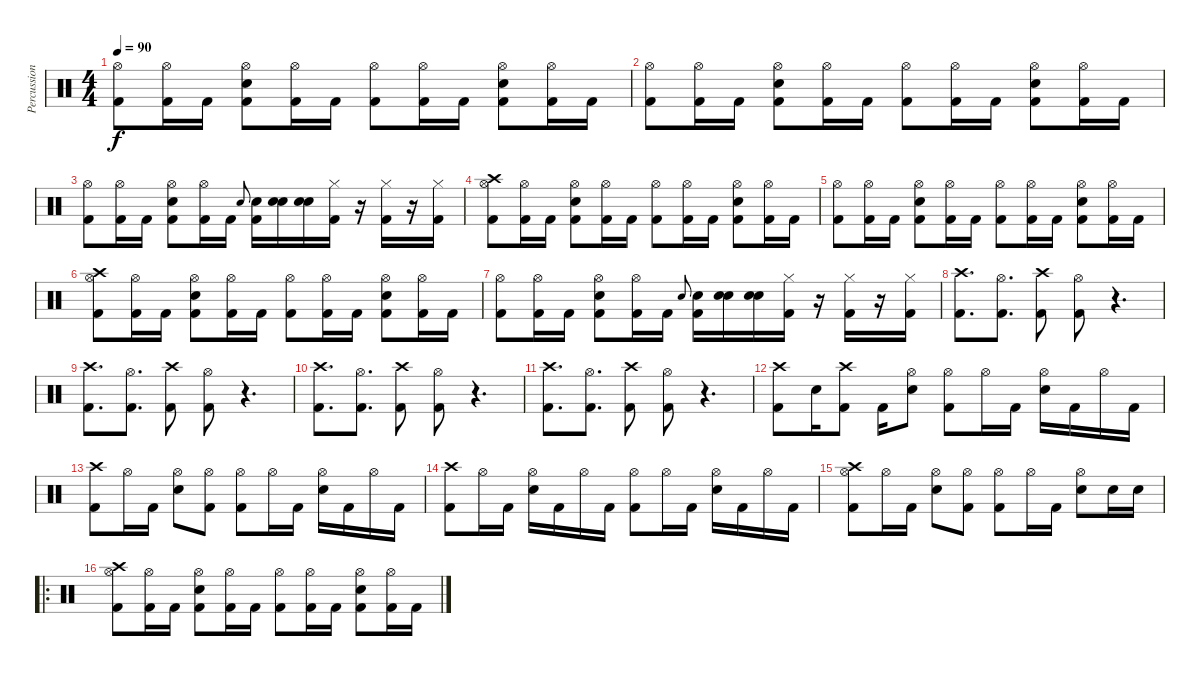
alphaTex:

\track ("Percussion " "Percussion") {instrument percussion}
\staff {score}
\articulation defaults
\ts (4 4)
\tempo 90
\clef neutral
\ks c
("Hi-Hat (open)" "Kick (hit) 2").8{dy f} ("Hi-Hat (open)" "Kick (hit) 2").16 "Kick (hit) 2".16 ("Hi-Hat (open)" "Snare (hit) 2" "Kick (hit) 2").8 ("Hi-Hat (open)" "Kick (hit) 2").16 "Kick (hit) 2".16 ("Hi-Hat (open)" "Kick (hit) 2").8 ("Hi-Hat (open)" "Kick (hit) 2").16 "Kick (hit) 2".16 ("Hi-Hat (open)" "Snare (hit) 2" "Kick (hit) 2").8 ("Hi-Hat (open)" "Kick (hit) 2").16 "Kick (hit) 2".16 |
("Hi-Hat (open)" "Kick (hit) 2").8 ("Hi-Hat (open)" "Kick (hit) 2").16 "Kick (hit) 2".16 ("Hi-Hat (open)" "Snare (hit) 2" "Kick (hit) 2").8 ("Hi-Hat (open)" "Kick (hit) 2").16 "Kick (hit) 2".16 ("Hi-Hat (open)" "Kick (hit) 2").8 ("Hi-Hat (open)" "Kick (hit) 2").16 "Kick (hit) 2".16 ("Hi-Hat (open)" "Snare (hit) 2" "Kick (hit) 2").8 ("Hi-Hat (open)" "Kick (hit) 2").16 "Kick (hit) 2".16 |
("Hi-Hat (open)" "Kick (hit) 2").8 ("Hi-Hat (open)" "Kick (hit) 2").16 "Kick (hit) 2".16 ("Hi-Hat (open)" "Snare (hit) 2" "Kick (hit) 2").8 ("Hi-Hat (open)" "Kick (hit) 2").16 "Kick (hit) 2".16 "Snare (hit) 2".8{gr onbeat} ("Snare (hit) 2" "Kick (hit) 2").16 ("Snare (hit) 2" "Snare (hit) 2").16 ("Snare (hit) 2" "Snare (hit) 2").16 ("Hi-Hat (closed)" "Kick (hit) 2").16 r.16 ("Hi-Hat (closed)" "Kick (hit) 2").16 r.16 ("Hi-Hat (closed)" "Kick (hit) 2").16 |
("Crash high (hit)" "Hi-Hat (open)" "Kick (hit) 2").8 ("Hi-Hat (open)" "Kick (hit) 2").16 "Kick (hit) 2".16 ("Hi-Hat (open)" "Snare (hit) 2" "Kick (hit) 2").8 ("Hi-Hat (open)" "Kick (hit) 2").16 "Kick (hit) 2".16 ("Hi-Hat (open)" "Kick (hit) 2").8 ("Hi-Hat (open)" "Kick (hit) 2").16 "Kick (hit) 2".16 ("Hi-Hat (open)" "Snare (hit) 2" "Kick (hit) 2").8 ("Hi-Hat (open)" "Kick (hit) 2").16 "Kick (hit) 2".16 |
("Hi-Hat (open)" "Kick (hit) 2").8 ("Hi-Hat (open)" "Kick (hit) 2").16 "Kick (hit) 2".16 ("Hi-Hat (open)" "Snare (hit) 2" "Kick (hit) 2").8 ("Hi-Hat (open)" "Kick (hit) 2").16 "Kick (hit) 2".16 ("Hi-Hat (open)" "Kick (hit) 2").8 ("Hi-Hat (open)" "Kick (hit) 2").16 "Kick (hit) 2".16 ("Hi-Hat (open)" "Snare (hit) 2" "Kick (hit) 2").8 ("Hi-Hat (open)" "Kick (hit) 2").16 "Kick (hit) 2".16 |
("Crash high (hit)" "Hi-Hat (open)" "Kick (hit) 2").8 ("Hi-Hat (open)" "Kick (hit) 2").16 "Kick (hit) 2".16 ("Hi-Hat (open)" "Snare (hit) 2" "Kick (hit) 2").8 ("Hi-Hat (open)" "Kick (hit) 2").16 "Kick (hit) 2".16 ("Hi-Hat (open)" "Kick (hit) 2").8 ("Hi-Hat (open)" "Kick (hit) 2").16 "Kick (hit) 2".16 ("Hi-Hat (open)" "Snare (hit) 2" "Kick (hit) 2").8 ("Hi-Hat (open)" "Kick (hit) 2").16 "Kick (hit) 2".16 |
("Hi-Hat (open)" "Kick (hit) 2").8 ("Hi-Hat (open)" "Kick (hit) 2").16 "Kick (hit) 2".16 ("Hi-Hat (open)" "Snare (hit) 2" "Kick (hit) 2").8 ("Hi-Hat (open)" "Kick (hit) 2").16 "Kick (hit) 2".16 "Snare (hit) 2".8{gr onbeat} ("Snare (hit) 2" "Kick (hit) 2").16 ("Snare (hit) 2" "Snare (hit) 2").16 ("Snare (hit) 2" "Snare (hit) 2").16 ("Hi-Hat (closed)" "Kick (hit) 2").16 r.16 ("Hi-Hat (closed)" "Kick (hit) 2").16 r.16 ("Hi-Hat (closed)" "Kick (hit) 2").16 |
("Crash high (hit)" "Kick (hit) 2").8{d} ("Hi-Hat (open)" "Kick (hit) 2").8{d} ("Crash high (hit)" "Kick (hit) 2").8 ("Hi-Hat (open)" "Kick (hit) 2").8 r.4{d} |
("Crash high (hit)" "Kick (hit) 2").8{d} ("Hi-Hat (open)" "Kick (hit) 2").8{d} ("Crash high (hit)" "Kick (hit) 2").8 ("Hi-Hat (open)" "Kick (hit) 2").8 r.4{d} |
("Crash high (hit)" "Kick (hit) 2").8{d} ("Hi-Hat (open)" "Kick (hit) 2").8{d} ("Crash high (hit)" "Kick (hit) 2").8 ("Hi-Hat (open)" "Kick (hit) 2").8 r.4{d} |
("Crash high (hit)" "Kick (hit) 2").8{d} ("Hi-Hat (open)" "Kick (hit) 2").8{d} ("Crash high (hit)" "Kick (hit) 2").8 ("Hi-Hat (open)" "Kick (hit) 2").8 r.4{d} |
("Crash high (hit)" "Kick (hit) 2").8 "Snare (hit) 2".16 ("Crash high (hit)" "Kick (hit) 2").8 "Kick (hit) 2".16 ("Hi-Hat (open)" "Snare (hit) 2").8 ("Hi-Hat (open)" "Kick (hit) 2").8 "Hi-Hat (open)".16 "Kick (hit) 2".16 ("Hi-Hat (open)" "Snare (hit) 2").16 "Kick (hit) 2".16 "Hi-Hat (open)".16 "Kick (hit) 2".16 |
("Crash high (hit)" "Kick (hit) 2").8 "Hi-Hat (open)".16 "Kick (hit) 2".16 ("Hi-Hat (open)" "Snare (hit) 2").8 ("Hi-Hat (open)" "Kick (hit) 2").8 ("Hi-Hat (open)" "Kick (hit) 2").8 "Hi-Hat (open)".16 "Kick (hit) 2".16 ("Hi-Hat (open)" "Snare (hit) 2").16 "Kick (hit) 2".16 "Hi-Hat (open)".16 "Kick (hit) 2".16 |
("Crash high (hit)" "Kick (hit) 2").8 "Hi-Hat (open)".16 "Kick (hit) 2".16 ("Hi-Hat (open)" "Snare (hit) 2").16 "Kick (hit) 2".16 "Hi-Hat (open)".16 "Kick (hit) 2".16 ("Hi-Hat (open)" "Kick (hit) 2").8 "Hi-Hat (open)".16 "Kick (hit) 2".16 ("Hi-Hat (open)" "Snare (hit) 2").16 "Kick (hit) 2".16 "Hi-Hat (open)".16 "Kick (hit) 2".16 |
("Crash high (hit)" "Hi-Hat (open)" "Kick (hit) 2").8 "Hi-Hat (open)".16 "Kick (hit) 2".16 ("Hi-Hat (open)" "Snare (hit) 2").8 ("Hi-Hat (open)" "Kick (hit) 2").8 ("Hi-Hat (open)" "Kick (hit) 2").8 "Hi-Hat (open)".16 "Kick (hit) 2".16 ("Hi-Hat (open)" "Snare (hit) 2").8 "Snare (hit) 2".16 "Snare (hit) 2".16 |
\ro
("Crash high (hit)" "Hi-Hat (open)" "Kick (hit) 2").8 ("Hi-Hat (open)" "Kick (hit) 2").16 "Kick (hit) 2".16 ("Hi-Hat (open)" "Snare (hit) 2" "Kick (hit) 2").8 ("Hi-Hat (open)" "Kick (hit) 2").16 "Kick (hit) 2".16 ("Hi-Hat (open)" "Kick (hit) 2").8 ("Hi-Hat (open)" "Kick (hit) 2").16 "Kick (hit) 2".16 ("Hi-Hat (open)" "Snare (hit) 2" "Kick (hit) 2").8 ("Hi-Hat (open)" "Kick (hit) 2").16 "Kick (hit) 2".16
